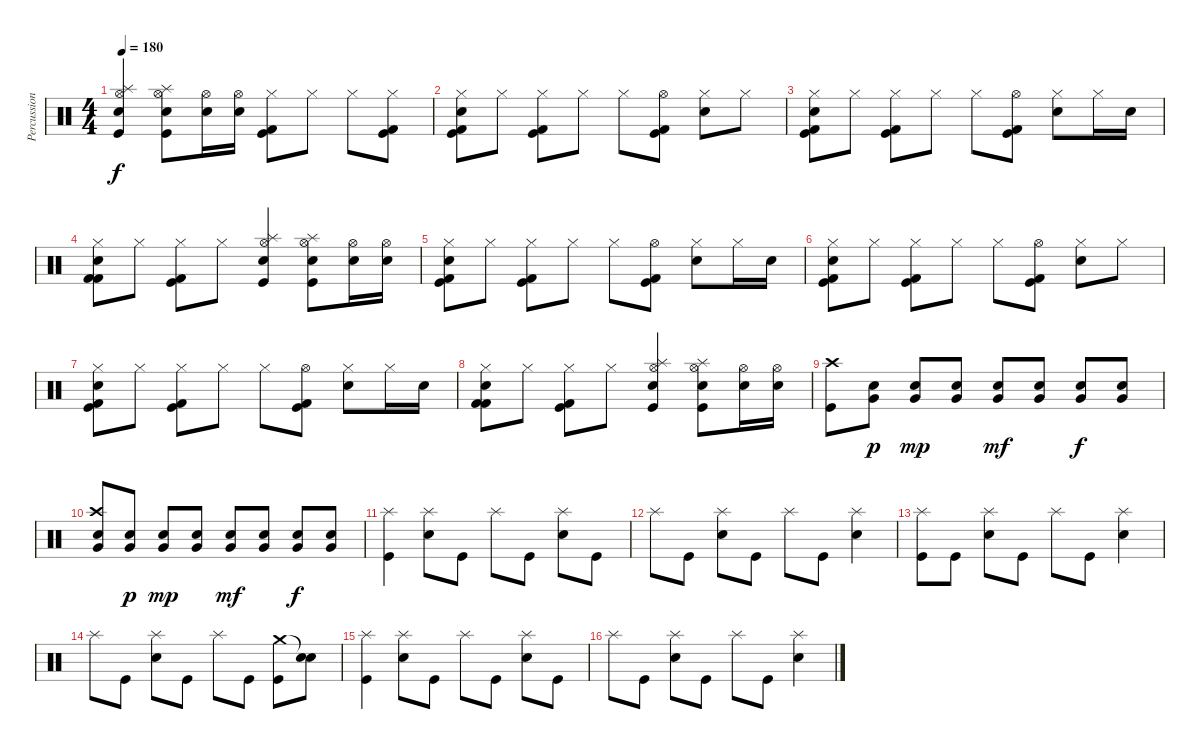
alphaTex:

\track ("Percussion" "Percussion") {instrument percussion}
\staff {score}
\articulation defaults
\ts (4 4)
\tempo 180
\clef neutral
\ks c
("Electric Snare (hit)" "Hi-Hat (open)" "Splash (hit)" "Kick (hit)").4{dy f} ("Electric Snare (hit)" "Hi-Hat (open)" "Splash (hit)" "Kick (hit)").8 ("Electric Snare (hit)" "Hi-Hat (open)").16 ("Electric Snare (hit)" "Hi-Hat (open)").16 ("Hi-Hat (closed)" "Kick (hit) 2" "Kick (hit)").8 "Hi-Hat (closed)".8 "Hi-Hat (closed)".8 ("Hi-Hat (closed)" "Kick (hit) 2" "Kick (hit)").8 |
("Hi-Hat (closed)" "Electric Snare (hit)" "Kick (hit) 2" "Kick (hit)").8 "Hi-Hat (closed)".8 ("Hi-Hat (closed)" "Kick (hit) 2" "Kick (hit)").8 "Hi-Hat (closed)".8 "Hi-Hat (closed)".8 ("Hi-Hat (open)" "Kick (hit) 2" "Kick (hit)").8 ("Hi-Hat (closed)" "Electric Snare (hit)").8 "Hi-Hat (closed)".8 |
("Hi-Hat (closed)" "Electric Snare (hit)" "Kick (hit) 2" "Kick (hit)").8 "Hi-Hat (closed)".8 ("Hi-Hat (closed)" "Kick (hit) 2" "Kick (hit)").8 "Hi-Hat (closed)".8 "Hi-Hat (closed)".8 ("Hi-Hat (open)" "Kick (hit) 2" "Kick (hit)").8 ("Hi-Hat (closed)" "Electric Snare (hit)").8 "Hi-Hat (closed)".16 "Electric Snare (hit)".16 |
("Hi-Hat (closed)" "Electric Snare (hit)" "Kick (hit) 2" "Kick (hit) 2").8 "Hi-Hat (closed)".8 ("Hi-Hat (closed)" "Kick (hit) 2" "Kick (hit)").8 "Hi-Hat (closed)".8 ("Electric Snare (hit)" "Hi-Hat (open)" "Splash (hit)" "Kick (hit)").4 ("Electric Snare (hit)" "Hi-Hat (open)" "Splash (hit)" "Kick (hit)").8 ("Electric Snare (hit)" "Hi-Hat (open)").16 ("Electric Snare (hit)" "Hi-Hat (open)").16 |
("Hi-Hat (closed)" "Electric Snare (hit)" "Kick (hit) 2" "Kick (hit)").8 "Hi-Hat (closed)".8 ("Hi-Hat (closed)" "Kick (hit) 2" "Kick (hit)").8 "Hi-Hat (closed)".8 "Hi-Hat (closed)".8 ("Hi-Hat (open)" "Kick (hit) 2" "Kick (hit)").8 ("Hi-Hat (closed)" "Electric Snare (hit)").8 "Hi-Hat (closed)".16 "Electric Snare (hit)".16 |
("Hi-Hat (closed)" "Electric Snare (hit)" "Kick (hit) 2" "Kick (hit)").8 "Hi-Hat (closed)".8 ("Hi-Hat (closed)" "Kick (hit) 2" "Kick (hit)").8 "Hi-Hat (closed)".8 "Hi-Hat (closed)".8 ("Hi-Hat (open)" "Kick (hit) 2" "Kick (hit)").8 ("Hi-Hat (closed)" "Electric Snare (hit)").8 "Hi-Hat (closed)".8 |
("Hi-Hat (closed)" "Electric Snare (hit)" "Kick (hit) 2" "Kick (hit)").8 "Hi-Hat (closed)".8 ("Hi-Hat (closed)" "Kick (hit) 2" "Kick (hit)").8 "Hi-Hat (closed)".8 "Hi-Hat (closed)".8 ("Hi-Hat (open)" "Kick (hit) 2" "Kick (hit)").8 ("Hi-Hat (closed)" "Electric Snare (hit)").8 "Hi-Hat (closed)".16 "Electric Snare (hit)".16 |
("Hi-Hat (closed)" "Electric Snare (hit)" "Kick (hit) 2" "Kick (hit) 2").8 "Hi-Hat (closed)".8 ("Hi-Hat (closed)" "Kick (hit) 2" "Kick (hit)").8 "Hi-Hat (closed)".8 ("Electric Snare (hit)" "Hi-Hat (open)" "Splash (hit)" "Kick (hit)").4 ("Electric Snare (hit)" "Hi-Hat (open)" "Splash (hit)" "Kick (hit)").8 ("Electric Snare (hit)" "Hi-Hat (open)").16 ("Electric Snare (hit)" "Hi-Hat (open)").16 |
("Crash high (hit)" "Kick (hit)").8 ("Electric Snare (hit)" "Very Low Tom (hit)").8{dy p} ("Electric Snare (hit)" "Very Low Tom (hit)").8{dy mp} ("Electric Snare (hit)" "Very Low Tom (hit)").8 ("Electric Snare (hit)" "Very Low Tom (hit)").8{dy mf} ("Electric Snare (hit)" "Very Low Tom (hit)").8 ("Electric Snare (hit)" "Very Low Tom (hit)").8{dy f} ("Electric Snare (hit)" "Very Low Tom (hit)").8 |
("Crash high (hit)" "Electric Snare (hit)" "Very Low Tom (hit)").8 ("Electric Snare (hit)" "Very Low Tom (hit)").8{dy p} ("Electric Snare (hit)" "Very Low Tom (hit)").8{dy mp} ("Electric Snare (hit)" "Very Low Tom (hit)").8 ("Electric Snare (hit)" "Very Low Tom (hit)").8{dy mf} ("Electric Snare (hit)" "Very Low Tom (hit)").8 ("Electric Snare (hit)" "Very Low Tom (hit)").8{dy f} ("Electric Snare (hit)" "Very Low Tom (hit)").8 |
("Splash (hit)" "Kick (hit)").4 ("Splash (hit)" "Electric Snare (hit)").8 "Kick (hit)".8 "Splash (hit)".8 "Kick (hit)".8 ("Splash (hit)" "Electric Snare (hit)").8 "Kick (hit)".8 |
"Splash (hit)".8 "Kick (hit)".8 ("Splash (hit)" "Electric Snare (hit)").8 "Kick (hit)".8 "Splash (hit)".8 "Kick (hit)".8 ("Splash (hit)" "Electric Snare (hit)").4 |
("Splash (hit)" "Kick (hit)").8 "Kick (hit)".8 ("Splash (hit)" "Electric Snare (hit)").8 "Kick (hit)".8 "Splash (hit)".8 "Kick (hit)".8 ("Splash (hit)" "Electric Snare (hit)").4 |
"Splash (hit)".8 "Kick (hit)".8 ("Splash (hit)" "Electric Snare (hit)").8 "Kick (hit)".8 "Splash (hit)".8 "Kick (hit)".8 ("Crash medium (hit)" "Kick (hit)").8 ("Snare (hit)"{t} "Electric Snare (hit)").8 |
("Splash (hit)" "Kick (hit)").4 ("Splash (hit)" "Electric Snare (hit)").8 "Kick (hit)".8 "Splash (hit)".8 "Kick (hit)".8 ("Splash (hit)" "Electric Snare (hit)").8 "Kick (hit)".8 |
"Splash (hit)".8 "Kick (hit)".8 ("Splash (hit)" "Electric Snare (hit)").8 "Kick (hit)".8 "Splash (hit)".8 "Kick (hit)".8 ("Splash (hit)" "Electric Snare (hit)").4
